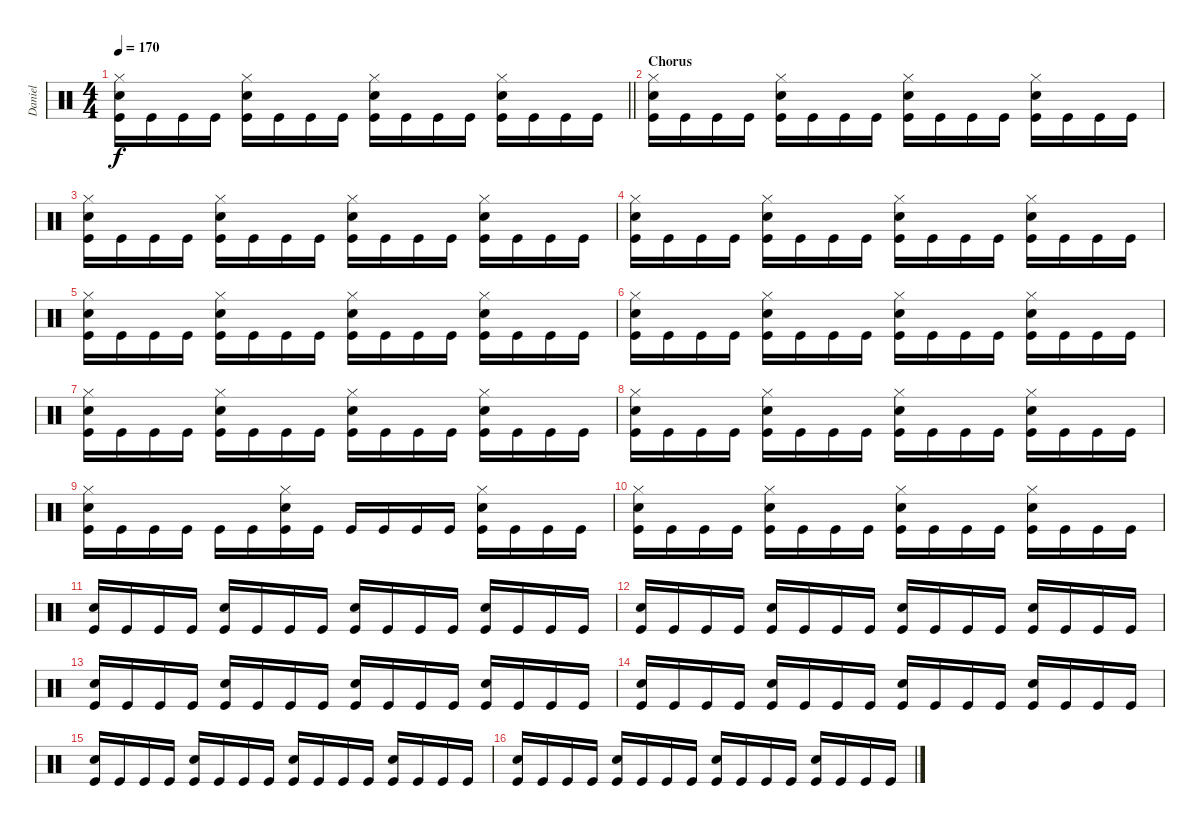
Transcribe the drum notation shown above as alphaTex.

\track ("Daniel" "Daniel") {instrument percussion}
\staff {score}
\articulation defaults
\ts (4 4)
\tempo 170
\clef neutral
\barLineRight lightlight
\ks c
("Kick (hit)" "Snare (hit) 2" "Hi-Hat (closed)").16{dy f} "Kick (hit)".16 "Kick (hit)".16 "Kick (hit)".16 ("Kick (hit)" "Snare (hit) 2" "Hi-Hat (closed)").16 "Kick (hit)".16 "Kick (hit)".16 "Kick (hit)".16 ("Kick (hit)" "Snare (hit) 2" "Hi-Hat (closed)").16 "Kick (hit)".16 "Kick (hit)".16 "Kick (hit)".16 ("Kick (hit)" "Snare (hit) 2" "Hi-Hat (closed)").16 "Kick (hit)".16 "Kick (hit)".16 "Kick (hit)".16 |
\section ("" "Chorus")
("Kick (hit)" "Snare (hit) 2" "Hi-Hat (closed)").16 "Kick (hit)".16 "Kick (hit)".16 "Kick (hit)".16 ("Kick (hit)" "Snare (hit) 2" "Hi-Hat (closed)").16 "Kick (hit)".16 "Kick (hit)".16 "Kick (hit)".16 ("Kick (hit)" "Snare (hit) 2" "Hi-Hat (closed)").16 "Kick (hit)".16 "Kick (hit)".16 "Kick (hit)".16 ("Kick (hit)" "Snare (hit) 2" "Hi-Hat (closed)").16 "Kick (hit)".16 "Kick (hit)".16 "Kick (hit)".16 |
("Kick (hit)" "Snare (hit) 2" "Hi-Hat (closed)").16 "Kick (hit)".16 "Kick (hit)".16 "Kick (hit)".16 ("Kick (hit)" "Snare (hit) 2" "Hi-Hat (closed)").16 "Kick (hit)".16 "Kick (hit)".16 "Kick (hit)".16 ("Kick (hit)" "Snare (hit) 2" "Hi-Hat (closed)").16 "Kick (hit)".16 "Kick (hit)".16 "Kick (hit)".16 ("Kick (hit)" "Snare (hit) 2" "Hi-Hat (closed)").16 "Kick (hit)".16 "Kick (hit)".16 "Kick (hit)".16 |
("Kick (hit)" "Snare (hit) 2" "Hi-Hat (closed)").16 "Kick (hit)".16 "Kick (hit)".16 "Kick (hit)".16 ("Kick (hit)" "Snare (hit) 2" "Hi-Hat (closed)").16 "Kick (hit)".16 "Kick (hit)".16 "Kick (hit)".16 ("Kick (hit)" "Snare (hit) 2" "Hi-Hat (closed)").16 "Kick (hit)".16 "Kick (hit)".16 "Kick (hit)".16 ("Kick (hit)" "Snare (hit) 2" "Hi-Hat (closed)").16 "Kick (hit)".16 "Kick (hit)".16 "Kick (hit)".16 |
("Kick (hit)" "Snare (hit) 2" "Hi-Hat (closed)").16 "Kick (hit)".16 "Kick (hit)".16 "Kick (hit)".16 ("Kick (hit)" "Snare (hit) 2" "Hi-Hat (closed)").16 "Kick (hit)".16 "Kick (hit)".16 "Kick (hit)".16 ("Kick (hit)" "Snare (hit) 2" "Hi-Hat (closed)").16 "Kick (hit)".16 "Kick (hit)".16 "Kick (hit)".16 ("Kick (hit)" "Snare (hit) 2" "Hi-Hat (closed)").16 "Kick (hit)".16 "Kick (hit)".16 "Kick (hit)".16 |
("Kick (hit)" "Snare (hit) 2" "Hi-Hat (closed)").16 "Kick (hit)".16 "Kick (hit)".16 "Kick (hit)".16 ("Kick (hit)" "Snare (hit) 2" "Hi-Hat (closed)").16 "Kick (hit)".16 "Kick (hit)".16 "Kick (hit)".16 ("Kick (hit)" "Snare (hit) 2" "Hi-Hat (closed)").16 "Kick (hit)".16 "Kick (hit)".16 "Kick (hit)".16 ("Kick (hit)" "Snare (hit) 2" "Hi-Hat (closed)").16 "Kick (hit)".16 "Kick (hit)".16 "Kick (hit)".16 |
("Kick (hit)" "Snare (hit) 2" "Hi-Hat (closed)").16 "Kick (hit)".16 "Kick (hit)".16 "Kick (hit)".16 ("Kick (hit)" "Snare (hit) 2" "Hi-Hat (closed)").16 "Kick (hit)".16 "Kick (hit)".16 "Kick (hit)".16 ("Kick (hit)" "Snare (hit) 2" "Hi-Hat (closed)").16 "Kick (hit)".16 "Kick (hit)".16 "Kick (hit)".16 ("Kick (hit)" "Snare (hit) 2" "Hi-Hat (closed)").16 "Kick (hit)".16 "Kick (hit)".16 "Kick (hit)".16 |
("Kick (hit)" "Snare (hit) 2" "Hi-Hat (closed)").16 "Kick (hit)".16 "Kick (hit)".16 "Kick (hit)".16 ("Kick (hit)" "Snare (hit) 2" "Hi-Hat (closed)").16 "Kick (hit)".16 "Kick (hit)".16 "Kick (hit)".16 ("Kick (hit)" "Snare (hit) 2" "Hi-Hat (closed)").16 "Kick (hit)".16 "Kick (hit)".16 "Kick (hit)".16 ("Kick (hit)" "Snare (hit) 2" "Hi-Hat (closed)").16 "Kick (hit)".16 "Kick (hit)".16 "Kick (hit)".16 |
("Kick (hit)" "Snare (hit) 2" "Hi-Hat (closed)").16 "Kick (hit)".16 "Kick (hit)".16 "Kick (hit)".16 "Kick (hit)".16 "Kick (hit)".16 ("Kick (hit)" "Snare (hit) 2" "Hi-Hat (closed)").16 "Kick (hit)".16 "Kick (hit)".16 "Kick (hit)".16 "Kick (hit)".16 "Kick (hit)".16 ("Kick (hit)" "Snare (hit) 2" "Hi-Hat (closed)").16 "Kick (hit)".16 "Kick (hit)".16 "Kick (hit)".16 |
("Kick (hit)" "Snare (hit) 2" "Hi-Hat (closed)").16 "Kick (hit)".16 "Kick (hit)".16 "Kick (hit)".16 ("Kick (hit)" "Snare (hit) 2" "Hi-Hat (closed)").16 "Kick (hit)".16 "Kick (hit)".16 "Kick (hit)".16 ("Kick (hit)" "Snare (hit) 2" "Hi-Hat (closed)").16 "Kick (hit)".16 "Kick (hit)".16 "Kick (hit)".16 ("Kick (hit)" "Snare (hit) 2" "Hi-Hat (closed)").16 "Kick (hit)".16 "Kick (hit)".16 "Kick (hit)".16 |
("Kick (hit)" "Snare (hit) 2").16 "Kick (hit)".16 "Kick (hit)".16 "Kick (hit)".16 ("Kick (hit)" "Snare (hit) 2").16 "Kick (hit)".16 "Kick (hit)".16 "Kick (hit)".16 ("Kick (hit)" "Snare (hit) 2").16 "Kick (hit)".16 "Kick (hit)".16 "Kick (hit)".16 ("Kick (hit)" "Snare (hit) 2").16 "Kick (hit)".16 "Kick (hit)".16 "Kick (hit)".16 |
("Kick (hit)" "Snare (hit) 2").16 "Kick (hit)".16 "Kick (hit)".16 "Kick (hit)".16 ("Kick (hit)" "Snare (hit) 2").16 "Kick (hit)".16 "Kick (hit)".16 "Kick (hit)".16 ("Kick (hit)" "Snare (hit) 2").16 "Kick (hit)".16 "Kick (hit)".16 "Kick (hit)".16 ("Kick (hit)" "Snare (hit) 2").16 "Kick (hit)".16 "Kick (hit)".16 "Kick (hit)".16 |
("Kick (hit)" "Snare (hit) 2").16 "Kick (hit)".16 "Kick (hit)".16 "Kick (hit)".16 ("Kick (hit)" "Snare (hit) 2").16 "Kick (hit)".16 "Kick (hit)".16 "Kick (hit)".16 ("Kick (hit)" "Snare (hit) 2").16 "Kick (hit)".16 "Kick (hit)".16 "Kick (hit)".16 ("Kick (hit)" "Snare (hit) 2").16 "Kick (hit)".16 "Kick (hit)".16 "Kick (hit)".16 |
("Kick (hit)" "Snare (hit) 2").16 "Kick (hit)".16 "Kick (hit)".16 "Kick (hit)".16 ("Kick (hit)" "Snare (hit) 2").16 "Kick (hit)".16 "Kick (hit)".16 "Kick (hit)".16 ("Kick (hit)" "Snare (hit) 2").16 "Kick (hit)".16 "Kick (hit)".16 "Kick (hit)".16 ("Kick (hit)" "Snare (hit) 2").16 "Kick (hit)".16 "Kick (hit)".16 "Kick (hit)".16 |
("Kick (hit)" "Snare (hit) 2").16 "Kick (hit)".16 "Kick (hit)".16 "Kick (hit)".16 ("Kick (hit)" "Snare (hit) 2").16 "Kick (hit)".16 "Kick (hit)".16 "Kick (hit)".16 ("Kick (hit)" "Snare (hit) 2").16 "Kick (hit)".16 "Kick (hit)".16 "Kick (hit)".16 ("Kick (hit)" "Snare (hit) 2").16 "Kick (hit)".16 "Kick (hit)".16 "Kick (hit)".16 |
("Kick (hit)" "Snare (hit) 2").16 "Kick (hit)".16 "Kick (hit)".16 "Kick (hit)".16 ("Kick (hit)" "Snare (hit) 2").16 "Kick (hit)".16 "Kick (hit)".16 "Kick (hit)".16 ("Kick (hit)" "Snare (hit) 2").16 "Kick (hit)".16 "Kick (hit)".16 "Kick (hit)".16 ("Kick (hit)" "Snare (hit) 2").16 "Kick (hit)".16 "Kick (hit)".16 "Kick (hit)".16
